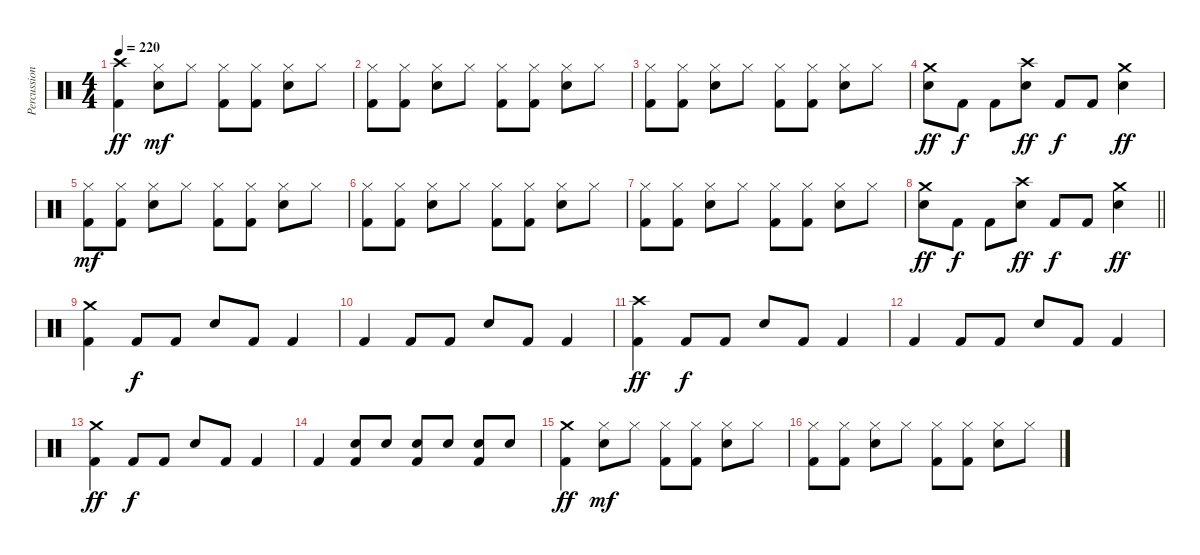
\track ("Percussion" "Percussion") {instrument percussion}
\staff {score}
\articulation defaults
\ts (4 4)
\tempo 220
\clef neutral
\ks c
("Crash high (hit)" "Kick (hit) 2").4{dy ff} ("Hi-Hat (closed)" "Electric Snare (hit)").8{dy mf} "Hi-Hat (closed)".8 ("Hi-Hat (closed)" "Kick (hit) 2").8 ("Hi-Hat (closed)" "Kick (hit) 2").8 ("Hi-Hat (closed)" "Electric Snare (hit)").8 "Hi-Hat (closed)".8 |
("Hi-Hat (closed)" "Kick (hit) 2").8 ("Hi-Hat (closed)" "Kick (hit) 2").8 ("Hi-Hat (closed)" "Electric Snare (hit)").8 "Hi-Hat (closed)".8 ("Hi-Hat (closed)" "Kick (hit) 2").8 ("Hi-Hat (closed)" "Kick (hit) 2").8 ("Hi-Hat (closed)" "Electric Snare (hit)").8 "Hi-Hat (closed)".8 |
("Hi-Hat (closed)" "Kick (hit) 2").8 ("Hi-Hat (closed)" "Kick (hit) 2").8 ("Hi-Hat (closed)" "Electric Snare (hit)").8 "Hi-Hat (closed)".8 ("Hi-Hat (closed)" "Kick (hit) 2").8 ("Hi-Hat (closed)" "Kick (hit) 2").8 ("Hi-Hat (closed)" "Electric Snare (hit)").8 "Hi-Hat (closed)".8 |
("Crash medium (hit)" "Electric Snare (hit)").8{dy ff} "Kick (hit) 2".8{dy f} "Kick (hit) 2".8 ("Crash high (hit)" "Electric Snare (hit)").8{dy ff} "Kick (hit) 2".8{dy f} "Kick (hit) 2".8 ("Crash medium (hit)" "Electric Snare (hit)").4{dy ff} |
("Hi-Hat (closed)" "Kick (hit) 2").8{dy mf} ("Hi-Hat (closed)" "Kick (hit) 2").8 ("Hi-Hat (closed)" "Electric Snare (hit)").8 "Hi-Hat (closed)".8 ("Hi-Hat (closed)" "Kick (hit) 2").8 ("Hi-Hat (closed)" "Kick (hit) 2").8 ("Hi-Hat (closed)" "Electric Snare (hit)").8 "Hi-Hat (closed)".8 |
("Hi-Hat (closed)" "Kick (hit) 2").8 ("Hi-Hat (closed)" "Kick (hit) 2").8 ("Hi-Hat (closed)" "Electric Snare (hit)").8 "Hi-Hat (closed)".8 ("Hi-Hat (closed)" "Kick (hit) 2").8 ("Hi-Hat (closed)" "Kick (hit) 2").8 ("Hi-Hat (closed)" "Electric Snare (hit)").8 "Hi-Hat (closed)".8 |
("Hi-Hat (closed)" "Kick (hit) 2").8 ("Hi-Hat (closed)" "Kick (hit) 2").8 ("Hi-Hat (closed)" "Electric Snare (hit)").8 "Hi-Hat (closed)".8 ("Hi-Hat (closed)" "Kick (hit) 2").8 ("Hi-Hat (closed)" "Kick (hit) 2").8 ("Hi-Hat (closed)" "Electric Snare (hit)").8 "Hi-Hat (closed)".8 |
\barLineRight lightlight
("Crash medium (hit)" "Electric Snare (hit)").8{dy ff} "Kick (hit) 2".8{dy f} "Kick (hit) 2".8 ("Crash high (hit)" "Electric Snare (hit)").8{dy ff} "Kick (hit) 2".8{dy f} "Kick (hit) 2".8 ("Crash medium (hit)" "Electric Snare (hit)").4{dy ff} |
("Crash medium (hit)" "Kick (hit) 2").4 "Kick (hit) 2".8{dy f} "Kick (hit) 2".8 "Electric Snare (hit)".8 "Kick (hit) 2".8 "Kick (hit) 2".4 |
"Kick (hit) 2".4 "Kick (hit) 2".8 "Kick (hit) 2".8 "Electric Snare (hit)".8 "Kick (hit) 2".8 "Kick (hit) 2".4 |
("Crash high (hit)" "Kick (hit) 2").4{dy ff} "Kick (hit) 2".8{dy f} "Kick (hit) 2".8 "Electric Snare (hit)".8 "Kick (hit) 2".8 "Kick (hit) 2".4 |
"Kick (hit) 2".4 "Kick (hit) 2".8 "Kick (hit) 2".8 "Electric Snare (hit)".8 "Kick (hit) 2".8 "Kick (hit) 2".4 |
("Crash medium (hit)" "Kick (hit) 2").4{dy ff} "Kick (hit) 2".8{dy f} "Kick (hit) 2".8 "Electric Snare (hit)".8 "Kick (hit) 2".8 "Kick (hit) 2".4 |
"Kick (hit) 2".4 ("Electric Snare (hit)" "Kick (hit) 2").8 "Electric Snare (hit)".8 ("Electric Snare (hit)" "Kick (hit) 2").8 "Electric Snare (hit)".8 ("Electric Snare (hit)" "Kick (hit) 2").8 "Electric Snare (hit)".8 |
("Crash medium (hit)" "Kick (hit) 2").4{dy ff} ("Hi-Hat (closed)" "Electric Snare (hit)").8{dy mf} "Hi-Hat (closed)".8 ("Hi-Hat (closed)" "Kick (hit) 2").8 ("Hi-Hat (closed)" "Kick (hit) 2").8 ("Hi-Hat (closed)" "Electric Snare (hit)").8 "Hi-Hat (closed)".8 |
("Hi-Hat (closed)" "Kick (hit) 2").8 ("Hi-Hat (closed)" "Kick (hit) 2").8 ("Hi-Hat (closed)" "Electric Snare (hit)").8 "Hi-Hat (closed)".8 ("Hi-Hat (closed)" "Kick (hit) 2").8 ("Hi-Hat (closed)" "Kick (hit) 2").8 ("Hi-Hat (closed)" "Electric Snare (hit)").8 "Hi-Hat (closed)".8
